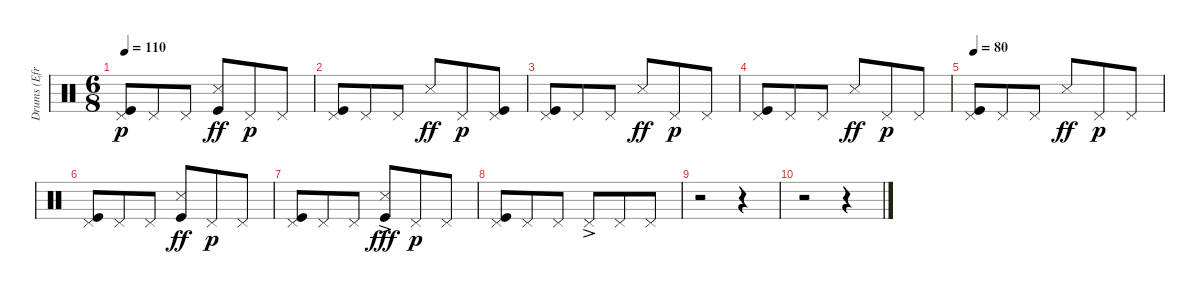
\track ("Drums (Efremov)" "Drums (Efr") {instrument percussion}
\staff {score}
\articulation defaults
\ts (6 8)
\tempo 110
\clef neutral
\ks c
("Pedal Hi-Hat (hit)" "Kick (hit)").8{dy p} "Pedal Hi-Hat (hit)".8 "Pedal Hi-Hat (hit)".8 ("Kick (hit)" "Snare (side stick) 3").8{dy ff} "Pedal Hi-Hat (hit)".8{dy p} "Pedal Hi-Hat (hit)".8 |
("Pedal Hi-Hat (hit)" "Kick (hit)").8 "Pedal Hi-Hat (hit)".8 "Pedal Hi-Hat (hit)".8 "Snare (side stick) 3".8{dy ff} "Pedal Hi-Hat (hit)".8{dy p} ("Kick (hit)" "Pedal Hi-Hat (hit)").8 |
("Pedal Hi-Hat (hit)" "Kick (hit)").8 "Pedal Hi-Hat (hit)".8 "Pedal Hi-Hat (hit)".8 "Snare (side stick) 3".8{dy ff} "Pedal Hi-Hat (hit)".8{dy p} "Pedal Hi-Hat (hit)".8 |
("Pedal Hi-Hat (hit)" "Kick (hit)").8 "Pedal Hi-Hat (hit)".8 "Pedal Hi-Hat (hit)".8 "Snare (side stick) 3".8{dy ff} "Pedal Hi-Hat (hit)".8{dy p} "Pedal Hi-Hat (hit)".8 |
\tempo 80
("Pedal Hi-Hat (hit)" "Kick (hit)").8 "Pedal Hi-Hat (hit)".8 "Pedal Hi-Hat (hit)".8 "Snare (side stick) 3".8{dy ff} "Pedal Hi-Hat (hit)".8{dy p} "Pedal Hi-Hat (hit)".8 |
("Pedal Hi-Hat (hit)" "Kick (hit)").8 "Pedal Hi-Hat (hit)".8 "Pedal Hi-Hat (hit)".8 ("Kick (hit)" "Snare (side stick) 3").8{dy ff} "Pedal Hi-Hat (hit)".8{dy p} "Pedal Hi-Hat (hit)".8 |
("Pedal Hi-Hat (hit)" "Kick (hit)").8 "Pedal Hi-Hat (hit)".8 "Pedal Hi-Hat (hit)".8 ("Kick (hit)" "Snare (side stick) 3"{ac}).8{dy fff} "Pedal Hi-Hat (hit)".8{dy p} "Pedal Hi-Hat (hit)".8 |
("Pedal Hi-Hat (hit)" "Kick (hit)").8 "Pedal Hi-Hat (hit)".8 "Pedal Hi-Hat (hit)".8 "Pedal Hi-Hat (hit)"{ac}.8 "Pedal Hi-Hat (hit)".8 "Pedal Hi-Hat (hit)".8 |
r.2 r.4 |
r.2 r.4
